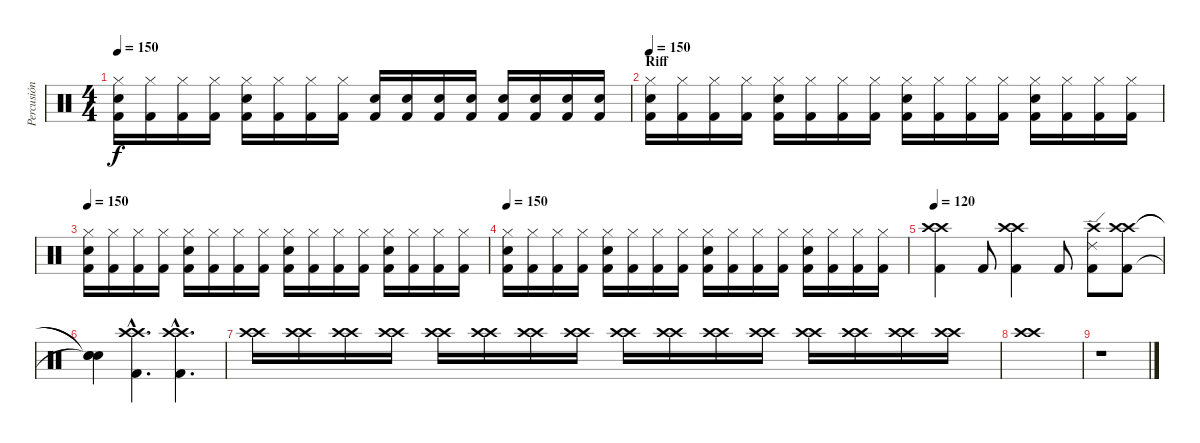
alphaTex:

\track ("Percusión" "Percusión") {instrument percussion}
\staff {score}
\articulation defaults
\ts (4 4)
\tempo 150
\clef neutral
\ks c
("Hi-Hat (closed)" "Electric Snare (hit)" "Kick (hit) 2").16{dy f} ("Hi-Hat (closed)" "Kick (hit) 2").16 ("Hi-Hat (closed)" "Kick (hit) 2").16 ("Hi-Hat (closed)" "Kick (hit) 2").16 ("Hi-Hat (closed)" "Electric Snare (hit)" "Kick (hit) 2").16 ("Hi-Hat (closed)" "Kick (hit) 2").16 ("Hi-Hat (closed)" "Kick (hit) 2").16 ("Hi-Hat (closed)" "Kick (hit) 2").16 ("Electric Snare (hit)" "Kick (hit) 2").16 ("Electric Snare (hit)" "Kick (hit) 2").16 ("Electric Snare (hit)" "Kick (hit) 2").16 ("Electric Snare (hit)" "Kick (hit) 2").16 ("Electric Snare (hit)" "Kick (hit) 2").16 ("Electric Snare (hit)" "Kick (hit) 2").16 ("Electric Snare (hit)" "Kick (hit) 2").16 ("Electric Snare (hit)" "Kick (hit) 2").16 |
\section ("" "Riff")
\tempo 150
("Hi-Hat (closed)" "Electric Snare (hit)" "Kick (hit) 2").16 ("Hi-Hat (closed)" "Kick (hit) 2").16 ("Hi-Hat (closed)" "Kick (hit) 2").16 ("Hi-Hat (closed)" "Kick (hit) 2").16 ("Hi-Hat (closed)" "Electric Snare (hit)" "Kick (hit) 2").16 ("Hi-Hat (closed)" "Kick (hit) 2").16 ("Hi-Hat (closed)" "Kick (hit) 2").16 ("Hi-Hat (closed)" "Kick (hit) 2").16 ("Hi-Hat (closed)" "Electric Snare (hit)" "Kick (hit) 2").16 ("Hi-Hat (closed)" "Kick (hit) 2").16 ("Hi-Hat (closed)" "Kick (hit) 2").16 ("Hi-Hat (closed)" "Kick (hit) 2").16 ("Hi-Hat (closed)" "Electric Snare (hit)" "Kick (hit) 2").16 ("Hi-Hat (closed)" "Kick (hit) 2").16 ("Hi-Hat (closed)" "Kick (hit) 2").16 ("Hi-Hat (closed)" "Kick (hit) 2").16 |
\tempo 150
("Hi-Hat (closed)" "Electric Snare (hit)" "Kick (hit) 2").16 ("Hi-Hat (closed)" "Kick (hit) 2").16 ("Hi-Hat (closed)" "Kick (hit) 2").16 ("Hi-Hat (closed)" "Kick (hit) 2").16 ("Hi-Hat (closed)" "Electric Snare (hit)" "Kick (hit) 2").16 ("Hi-Hat (closed)" "Kick (hit) 2").16 ("Hi-Hat (closed)" "Kick (hit) 2").16 ("Hi-Hat (closed)" "Kick (hit) 2").16 ("Hi-Hat (closed)" "Electric Snare (hit)" "Kick (hit) 2").16 ("Hi-Hat (closed)" "Kick (hit) 2").16 ("Hi-Hat (closed)" "Kick (hit) 2").16 ("Hi-Hat (closed)" "Kick (hit) 2").16 ("Hi-Hat (closed)" "Electric Snare (hit)" "Kick (hit) 2").16 ("Hi-Hat (closed)" "Kick (hit) 2").16 ("Hi-Hat (closed)" "Kick (hit) 2").16 ("Hi-Hat (closed)" "Kick (hit) 2").16 |
\tempo 150
("Hi-Hat (closed)" "Electric Snare (hit)" "Kick (hit) 2").16 ("Hi-Hat (closed)" "Kick (hit) 2").16 ("Hi-Hat (closed)" "Kick (hit) 2").16 ("Hi-Hat (closed)" "Kick (hit) 2").16 ("Hi-Hat (closed)" "Electric Snare (hit)" "Kick (hit) 2").16 ("Hi-Hat (closed)" "Kick (hit) 2").16 ("Hi-Hat (closed)" "Kick (hit) 2").16 ("Hi-Hat (closed)" "Kick (hit) 2").16 ("Hi-Hat (closed)" "Electric Snare (hit)" "Kick (hit) 2").16 ("Hi-Hat (closed)" "Kick (hit) 2").16 ("Hi-Hat (closed)" "Kick (hit) 2").16 ("Hi-Hat (closed)" "Kick (hit) 2").16 ("Hi-Hat (closed)" "Electric Snare (hit)" "Kick (hit) 2").16 ("Hi-Hat (closed)" "Kick (hit) 2").16 ("Hi-Hat (closed)" "Kick (hit) 2").16 ("Hi-Hat (closed)" "Kick (hit) 2").16 |
\tempo 120
("Crash high (hit)" "Crash high (hit)" "Kick (hit) 2").4 "Kick (hit) 2".8 ("Crash high (hit)" "Crash high (hit)" "Kick (hit) 2").4 "Kick (hit) 2".8 ("Crash high (hit)" "Ride (edge) 2" "Kick (hit) 2").8 ("Crash high (hit)" "Crash high (hit)" "Kick (hit) 2").8 |
("Snare (hit)"{t} "Snare (hit)"{t} "Snare (hit)"{t}).4 ("Crash high (hit)"{hac} "Crash high (hit)"{hac} "Kick (hit) 2"{hac}).4{d} ("Crash high (hit)"{hac} "Crash high (hit)"{hac} "Kick (hit) 2"{hac}).4{d} |
("Crash high (hit)" "Crash high (hit)").16{volume 10} ("Crash high (hit)" "Crash high (hit)").16 ("Crash high (hit)" "Crash high (hit)").16 ("Crash high (hit)" "Crash high (hit)").16 ("Crash high (hit)" "Crash high (hit)").16 ("Crash high (hit)" "Crash high (hit)").16 ("Crash high (hit)" "Crash high (hit)").16 ("Crash high (hit)" "Crash high (hit)").16 ("Crash high (hit)" "Crash high (hit)").16 ("Crash high (hit)" "Crash high (hit)").16 ("Crash high (hit)" "Crash high (hit)").16 ("Crash high (hit)" "Crash high (hit)").16 ("Crash high (hit)" "Crash high (hit)").16 ("Crash high (hit)" "Crash high (hit)").16 ("Crash high (hit)" "Crash high (hit)").16 ("Crash high (hit)" "Crash high (hit)").16 |
("Crash high (hit)" "Crash high (hit)").1 |
r.1
